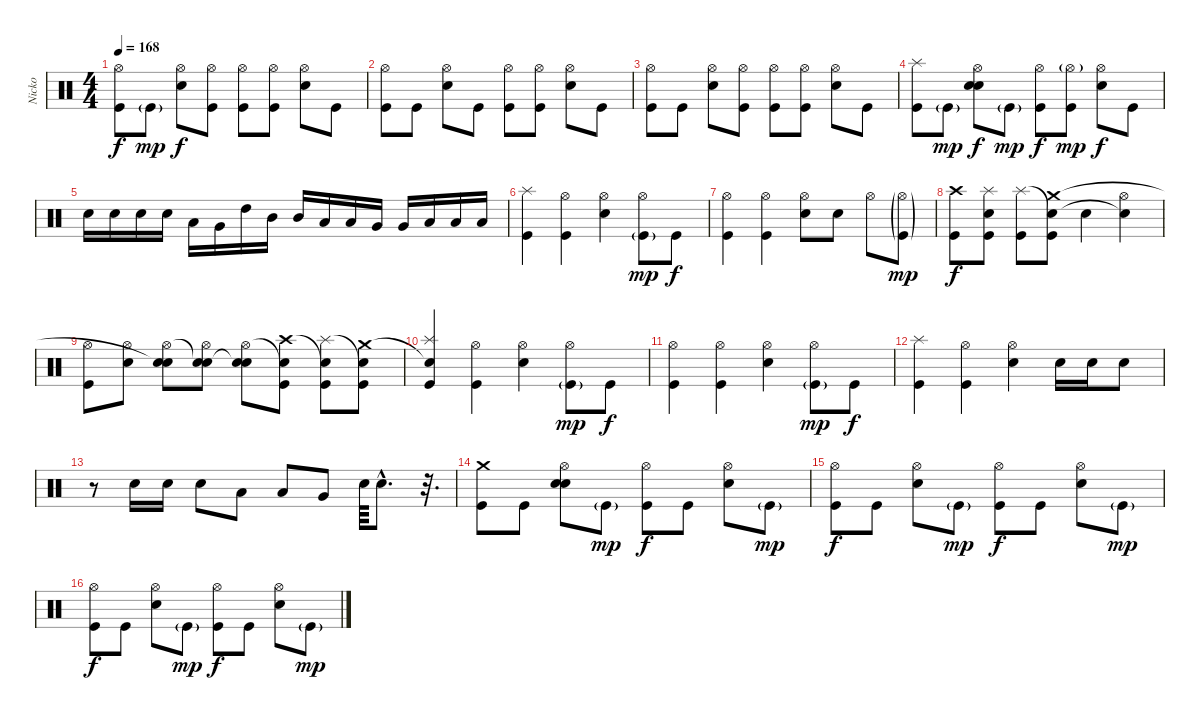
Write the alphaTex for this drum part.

\track ("Nicko" "Nicko") {instrument percussion}
\staff {score}
\articulation defaults
\ts (4 4)
\tempo 168
\clef neutral
\ks c
("Kick (hit)" "Hi-Hat (open)").8{dy f} "Kick (hit)"{g}.8{dy mp} ("Electric Snare (hit)" "Hi-Hat (open)").8{dy f} ("Kick (hit)" "Hi-Hat (open)").8 ("Kick (hit)" "Hi-Hat (open)").8 ("Kick (hit)" "Hi-Hat (open)").8 ("Electric Snare (hit)" "Hi-Hat (open)").8 "Kick (hit)".8 |
("Kick (hit)" "Hi-Hat (open)").8 "Kick (hit)".8 ("Electric Snare (hit)" "Hi-Hat (open)").8 "Kick (hit)".8 ("Kick (hit)" "Hi-Hat (open)").8 ("Kick (hit)" "Hi-Hat (open)").8 ("Electric Snare (hit)" "Hi-Hat (open)").8 "Kick (hit)".8 |
("Kick (hit)" "Hi-Hat (open)").8 "Kick (hit)".8 ("Electric Snare (hit)" "Hi-Hat (open)").8 ("Kick (hit)" "Hi-Hat (open)").8 ("Kick (hit)" "Hi-Hat (open)").8 ("Kick (hit)" "Hi-Hat (open)").8 ("Electric Snare (hit)" "Hi-Hat (open)").8 "Kick (hit)".8 |
("Kick (hit)" "Splash (hit)").8 "Kick (hit)"{g}.8{dy mp} ("Electric Snare (hit)" "Hi-Hat (open)" "Snare (hit)").8{dy f} "Kick (hit)"{g}.8{dy mp} ("Kick (hit)" "Hi-Hat (open)").8{dy f} ("Kick (hit)" "Hi-Hat (open)"{g}).8{dy mp} ("Electric Snare (hit)" "Hi-Hat (open)").8{dy f} "Kick (hit)".8 |
"Electric Snare (hit)".16 "Electric Snare (hit)".16 "Electric Snare (hit)".16 "Electric Snare (hit)".16 "Low Tom (hit)".16 "Very Low Tom (hit)".16 "High Tom (hit)".16 "Mid Tom (hit)".16 "Mid Tom (hit)".16 "Low Tom (hit)".16 "Low Tom (hit)".16 "Very Low Tom (hit)".16 "Very Low Tom (hit)".16 "Low Floor Tom (hit)".16 "Low Floor Tom (hit)".16 "Low Floor Tom (hit)".16 |
("Kick (hit)" "Splash (hit)").4 ("Kick (hit)" "Hi-Hat (open)").4 ("Electric Snare (hit)" "Hi-Hat (open)").4 ("Kick (hit)"{g} "Hi-Hat (open)").8{dy mp} "Kick (hit)".8{dy f} |
("Kick (hit)" "Hi-Hat (open)").4 ("Kick (hit)" "Hi-Hat (open)").4 ("Electric Snare (hit)" "Hi-Hat (open)").8 "Electric Snare (hit)".8 "Hi-Hat (open)".8 ("Kick (hit)"{g} "Hi-Hat (open)"{g}).8{dy mp} |
("Kick (hit)" "Crash high (hit)").8{dy f volume 10} ("Kick (hit)" "Splash (hit)" "Snare (hit)").8{volume 12} ("Kick (hit)" "Splash (hit)").8{volume 13} ("Kick (hit)" "Snare (hit)"{t} "Crash medium (hit)").8 "Electric Snare (hit)".4 ("Hi-Hat (open)" "Snare (hit)"{t}).4 |
("Kick (hit)" "Hi-Hat (open)").8 ("Electric Snare (hit)" "Hi-Hat (open)").8 ("Electric Snare (hit)" "Hi-Hat (open)" "Snare (hit)"{t}).8 ("Electric Snare (hit)" "Snare (hit)"{t} "Hi-Hat (open)").8 ("Electric Snare (hit)" "Snare (hit)"{t} "Hi-Hat (open)").8 ("Kick (hit)" "Crash high (hit)" "Snare (hit)"{t}).8{volume 10} ("Kick (hit)" "Snare (hit)"{t} "Splash (hit)").8{volume 12} ("Kick (hit)" "Crash medium (hit)" "Snare (hit)"{t}).8 |
("Kick (hit)" "Snare (hit)"{t} "Splash (hit)").4{volume 13} ("Kick (hit)" "Hi-Hat (open)").4 ("Electric Snare (hit)" "Hi-Hat (open)").4 ("Kick (hit)"{g} "Hi-Hat (open)").8{dy mp} "Kick (hit)".8{dy f} |
("Kick (hit)" "Hi-Hat (open)").4 ("Kick (hit)" "Hi-Hat (open)").4 ("Electric Snare (hit)" "Hi-Hat (open)").4 ("Kick (hit)"{g} "Hi-Hat (open)").8{dy mp} "Kick (hit)".8{dy f} |
("Kick (hit)" "Splash (hit)").4 ("Kick (hit)" "Hi-Hat (open)").4 ("Electric Snare (hit)" "Hi-Hat (open)").4 "Electric Snare (hit)".16 "Electric Snare (hit)".16 "Electric Snare (hit)".8 |
r.8 "Electric Snare (hit)".16 "Electric Snare (hit)".16 "Electric Snare (hit)".8 "Low Tom (hit)".8 "Low Tom (hit)".8 "Very Low Tom (hit)".8 "Electric Snare (hit)".64 "Electric Snare (hit)"{hac}.8{d} r.32{d} |
("Kick (hit)" "Crash medium (hit)").8 "Kick (hit)".8 ("Electric Snare (hit)" "Hi-Hat (open)" "Snare (hit)").8 "Kick (hit)"{g}.8{dy mp} ("Kick (hit)" "Hi-Hat (open)").8{dy f} "Kick (hit)".8 ("Electric Snare (hit)" "Hi-Hat (open)").8 "Kick (hit)"{g}.8{dy mp} |
("Kick (hit)" "Hi-Hat (open)").8{dy f} "Kick (hit)".8 ("Electric Snare (hit)" "Hi-Hat (open)").8 "Kick (hit)"{g}.8{dy mp} ("Kick (hit)" "Hi-Hat (open)").8{dy f} "Kick (hit)".8 ("Electric Snare (hit)" "Hi-Hat (open)").8 "Kick (hit)"{g}.8{dy mp} |
("Kick (hit)" "Hi-Hat (open)").8{dy f} "Kick (hit)".8 ("Electric Snare (hit)" "Hi-Hat (open)").8 "Kick (hit)"{g}.8{dy mp} ("Kick (hit)" "Hi-Hat (open)").8{dy f} "Kick (hit)".8 ("Electric Snare (hit)" "Hi-Hat (open)").8 "Kick (hit)"{g}.8{dy mp}
